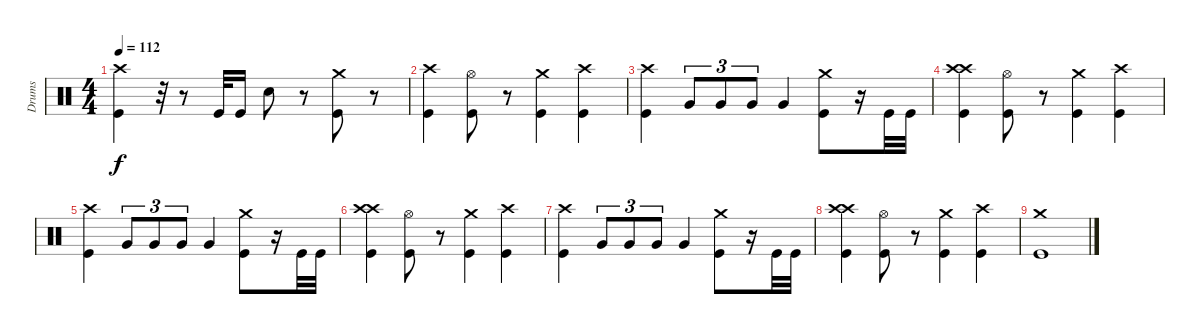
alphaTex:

\track ("Drums" "Drums") {instrument percussion}
\staff {score}
\articulation defaults
\ts (4 4)
\tempo 112
\clef neutral
\ks c
("Crash high (hit)" "Kick (hit)").4{dy f} r.32 r.8 "Kick (hit)".32 "Kick (hit)".16 "Snare (hit) 2".8 r.8 ("Crash medium (hit)" "Kick (hit)").8 r.8 |
("Crash high (hit)" "Kick (hit)").4 ("Hi-Hat (open)" "Kick (hit)").8 r.8 ("Crash medium (hit)" "Kick (hit)").4 ("Crash high (hit)" "Kick (hit)").4 |
("Crash high (hit)" "Kick (hit)").4 "Very Low Tom (hit)".8{tu (3 2) volume 16} "Very Low Tom (hit)".8{tu (3 2)} "Very Low Tom (hit)".8{tu (3 2)} "Very Low Tom (hit)".4 ("Crash medium (hit)" "Kick (hit)").8{volume 12} r.16 "Kick (hit)".32 "Kick (hit)".32 |
("Crash high (hit)" "Crash high (hit)" "Kick (hit)").4 ("Hi-Hat (open)" "Kick (hit)").8 r.8 ("Crash medium (hit)" "Kick (hit)").4 ("Crash high (hit)" "Kick (hit)").4 |
("Crash high (hit)" "Kick (hit)").4 "Very Low Tom (hit)".8{tu (3 2) volume 16} "Very Low Tom (hit)".8{tu (3 2)} "Very Low Tom (hit)".8{tu (3 2)} "Very Low Tom (hit)".4 ("Crash medium (hit)" "Kick (hit)").8{volume 12} r.16 "Kick (hit)".32 "Kick (hit)".32 |
("Crash high (hit)" "Crash high (hit)" "Kick (hit)").4 ("Hi-Hat (open)" "Kick (hit)").8 r.8 ("Crash medium (hit)" "Kick (hit)").4 ("Crash high (hit)" "Kick (hit)").4 |
("Crash high (hit)" "Kick (hit)").4 "Very Low Tom (hit)".8{tu (3 2) volume 16} "Very Low Tom (hit)".8{tu (3 2)} "Very Low Tom (hit)".8{tu (3 2)} "Very Low Tom (hit)".4 ("Crash medium (hit)" "Kick (hit)").8{volume 12} r.16 "Kick (hit)".32 "Kick (hit)".32 |
("Crash high (hit)" "Crash high (hit)" "Kick (hit)").4 ("Hi-Hat (open)" "Kick (hit)").8 r.8 ("Crash medium (hit)" "Kick (hit)").4 ("Crash high (hit)" "Kick (hit)").4 |
("Crash medium (hit)" "Kick (hit)").1
